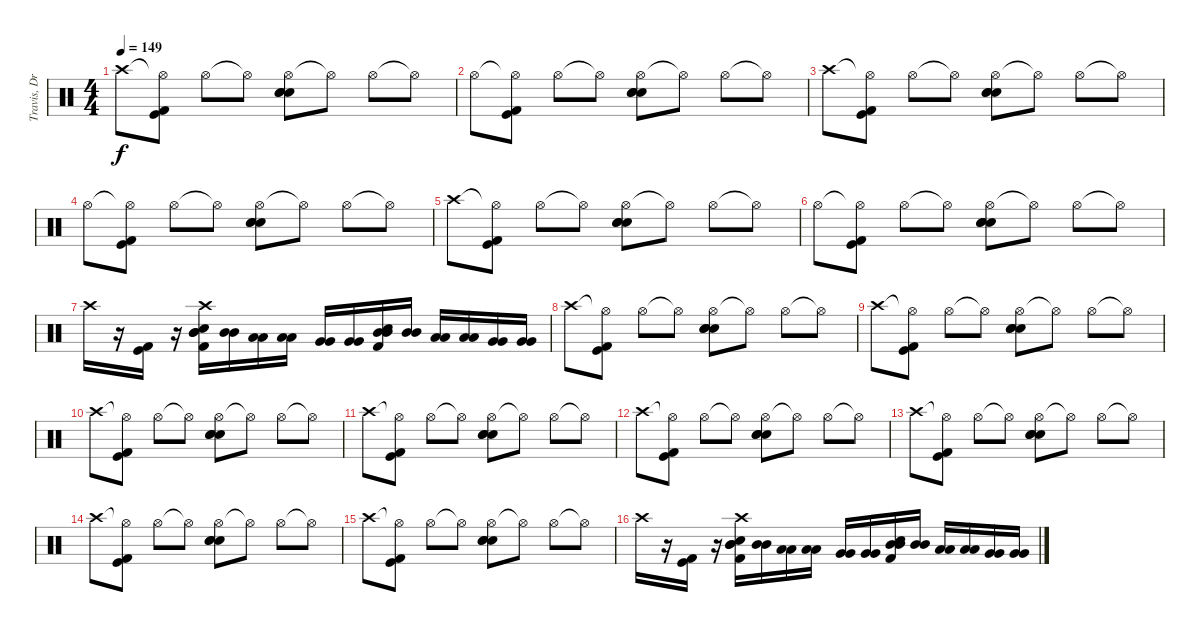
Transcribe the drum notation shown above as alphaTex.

\track ("Travis, Drums {Tabbed by Peter B.}" "Travis, Dr") {instrument percussion}
\staff {score}
\articulation defaults
\ts (4 4)
\tempo 149
\clef neutral
\ks c "Crash high (hit)".8{dy f}
("Hi-Hat (open)"{t} "Kick (hit)" "Kick (hit) 2").8 "Hi-Hat (open)".8 "Hi-Hat (open)"{t}.8 ("Hi-Hat (open)" "Electric Snare (hit)" "Electric Snare (hit)" "Snare (hit) 2").8 "Hi-Hat (open)"{t}.8 "Hi-Hat (open)".8 "Hi-Hat (open)"{t}.8 |
"Hi-Hat (open)".8 ("Hi-Hat (open)"{t} "Kick (hit)" "Kick (hit) 2").8 "Hi-Hat (open)".8 "Hi-Hat (open)"{t}.8 ("Hi-Hat (open)" "Electric Snare (hit)" "Electric Snare (hit)" "Snare (hit) 2").8 "Hi-Hat (open)"{t}.8 "Hi-Hat (open)".8 "Hi-Hat (open)"{t}.8 |
"Crash high (hit)".8 ("Hi-Hat (open)"{t} "Kick (hit)" "Kick (hit) 2").8 "Hi-Hat (open)".8 "Hi-Hat (open)"{t}.8 ("Hi-Hat (open)" "Electric Snare (hit)" "Electric Snare (hit)" "Snare (hit) 2").8 "Hi-Hat (open)"{t}.8 "Hi-Hat (open)".8 "Hi-Hat (open)"{t}.8 |
"Hi-Hat (open)".8 ("Hi-Hat (open)"{t} "Kick (hit)" "Kick (hit) 2").8 "Hi-Hat (open)".8 "Hi-Hat (open)"{t}.8 ("Hi-Hat (open)" "Electric Snare (hit)" "Electric Snare (hit)" "Snare (hit) 2").8 "Hi-Hat (open)"{t}.8 "Hi-Hat (open)".8 "Hi-Hat (open)"{t}.8 |
"Crash high (hit)".8 ("Hi-Hat (open)"{t} "Kick (hit)" "Kick (hit) 2").8 "Hi-Hat (open)".8 "Hi-Hat (open)"{t}.8 ("Hi-Hat (open)" "Electric Snare (hit)" "Electric Snare (hit)" "Snare (hit) 2").8 "Hi-Hat (open)"{t}.8 "Hi-Hat (open)".8 "Hi-Hat (open)"{t}.8 |
"Hi-Hat (open)".8 ("Hi-Hat (open)"{t} "Kick (hit)" "Kick (hit) 2").8 "Hi-Hat (open)".8 "Hi-Hat (open)"{t}.8 ("Hi-Hat (open)" "Electric Snare (hit)" "Electric Snare (hit)" "Snare (hit) 2").8 "Hi-Hat (open)"{t}.8 "Hi-Hat (open)".8 "Hi-Hat (open)"{t}.8 |
"Crash high (hit)".16 r.16 ("Kick (hit)" "Kick (hit) 2").16 r.16 ("Crash high (hit)" "Mid Tom (hit)" "Mid Tom (hit)" "Electric Snare (hit)" "Kick (hit) 2").16 ("Mid Tom (hit)" "Mid Tom (hit)").16 ("Low Tom (hit)" "Low Tom (hit)").16 ("Low Tom (hit)" "Low Tom (hit)").16 ("Very Low Tom (hit)" "Very Low Tom (hit)").16 ("Very Low Tom (hit)" "Very Low Tom (hit)").16 ("Mid Tom (hit)" "Mid Tom (hit)" "Electric Snare (hit)" "Kick (hit) 2").16 ("Mid Tom (hit)" "Mid Tom (hit)").16 ("Low Tom (hit)" "Low Tom (hit)").16 ("Low Tom (hit)" "Low Tom (hit)").16 ("Very Low Tom (hit)" "Very Low Tom (hit)").16 ("Very Low Tom (hit)" "Very Low Tom (hit)").16 |
"Crash high (hit)".8 ("Hi-Hat (open)"{t} "Kick (hit)" "Kick (hit) 2").8 "Hi-Hat (open)".8 "Hi-Hat (open)"{t}.8 ("Hi-Hat (open)" "Electric Snare (hit)" "Electric Snare (hit)" "Snare (hit) 2").8 "Hi-Hat (open)"{t}.8 "Hi-Hat (open)".8 "Hi-Hat (open)"{t}.8 |
"Crash high (hit)".8 ("Hi-Hat (open)"{t} "Kick (hit)" "Kick (hit) 2").8 "Hi-Hat (open)".8 "Hi-Hat (open)"{t}.8 ("Hi-Hat (open)" "Electric Snare (hit)" "Electric Snare (hit)" "Snare (hit) 2").8 "Hi-Hat (open)"{t}.8 "Hi-Hat (open)".8 "Hi-Hat (open)"{t}.8 |
"Crash high (hit)".8 ("Hi-Hat (open)"{t} "Kick (hit)" "Kick (hit) 2").8 "Hi-Hat (open)".8 "Hi-Hat (open)"{t}.8 ("Hi-Hat (open)" "Electric Snare (hit)" "Electric Snare (hit)" "Snare (hit) 2").8 "Hi-Hat (open)"{t}.8 "Hi-Hat (open)".8 "Hi-Hat (open)"{t}.8 |
"Crash high (hit)".8 ("Hi-Hat (open)"{t} "Kick (hit)" "Kick (hit) 2").8 "Hi-Hat (open)".8 "Hi-Hat (open)"{t}.8 ("Hi-Hat (open)" "Electric Snare (hit)" "Electric Snare (hit)" "Snare (hit) 2").8 "Hi-Hat (open)"{t}.8 "Hi-Hat (open)".8 "Hi-Hat (open)"{t}.8 |
"Crash high (hit)".8 ("Hi-Hat (open)"{t} "Kick (hit)" "Kick (hit) 2").8 "Hi-Hat (open)".8 "Hi-Hat (open)"{t}.8 ("Hi-Hat (open)" "Electric Snare (hit)" "Electric Snare (hit)" "Snare (hit) 2").8 "Hi-Hat (open)"{t}.8 "Hi-Hat (open)".8 "Hi-Hat (open)"{t}.8 |
"Crash high (hit)".8 ("Hi-Hat (open)"{t} "Kick (hit)" "Kick (hit) 2").8 "Hi-Hat (open)".8 "Hi-Hat (open)"{t}.8 ("Hi-Hat (open)" "Electric Snare (hit)" "Electric Snare (hit)" "Snare (hit) 2").8 "Hi-Hat (open)"{t}.8 "Hi-Hat (open)".8 "Hi-Hat (open)"{t}.8 |
"Crash high (hit)".8 ("Hi-Hat (open)"{t} "Kick (hit)" "Kick (hit) 2").8 "Hi-Hat (open)".8 "Hi-Hat (open)"{t}.8 ("Hi-Hat (open)" "Electric Snare (hit)" "Electric Snare (hit)" "Snare (hit) 2").8 "Hi-Hat (open)"{t}.8 "Hi-Hat (open)".8 "Hi-Hat (open)"{t}.8 |
"Crash high (hit)".8 ("Hi-Hat (open)"{t} "Kick (hit)" "Kick (hit) 2").8 "Hi-Hat (open)".8 "Hi-Hat (open)"{t}.8 ("Hi-Hat (open)" "Electric Snare (hit)" "Electric Snare (hit)" "Snare (hit) 2").8 "Hi-Hat (open)"{t}.8 "Hi-Hat (open)".8 "Hi-Hat (open)"{t}.8 |
"Crash high (hit)".16 r.16 ("Kick (hit)" "Kick (hit) 2").16 r.16 ("Crash high (hit)" "Mid Tom (hit)" "Mid Tom (hit)" "Electric Snare (hit)" "Kick (hit) 2").16 ("Mid Tom (hit)" "Mid Tom (hit)").16 ("Low Tom (hit)" "Low Tom (hit)").16 ("Low Tom (hit)" "Low Tom (hit)").16 ("Very Low Tom (hit)" "Very Low Tom (hit)").16 ("Very Low Tom (hit)" "Very Low Tom (hit)").16 ("Mid Tom (hit)" "Mid Tom (hit)" "Electric Snare (hit)" "Kick (hit) 2").16 ("Mid Tom (hit)" "Mid Tom (hit)").16 ("Low Tom (hit)" "Low Tom (hit)").16 ("Low Tom (hit)" "Low Tom (hit)").16 ("Very Low Tom (hit)" "Very Low Tom (hit)").16 ("Very Low Tom (hit)" "Very Low Tom (hit)").16
